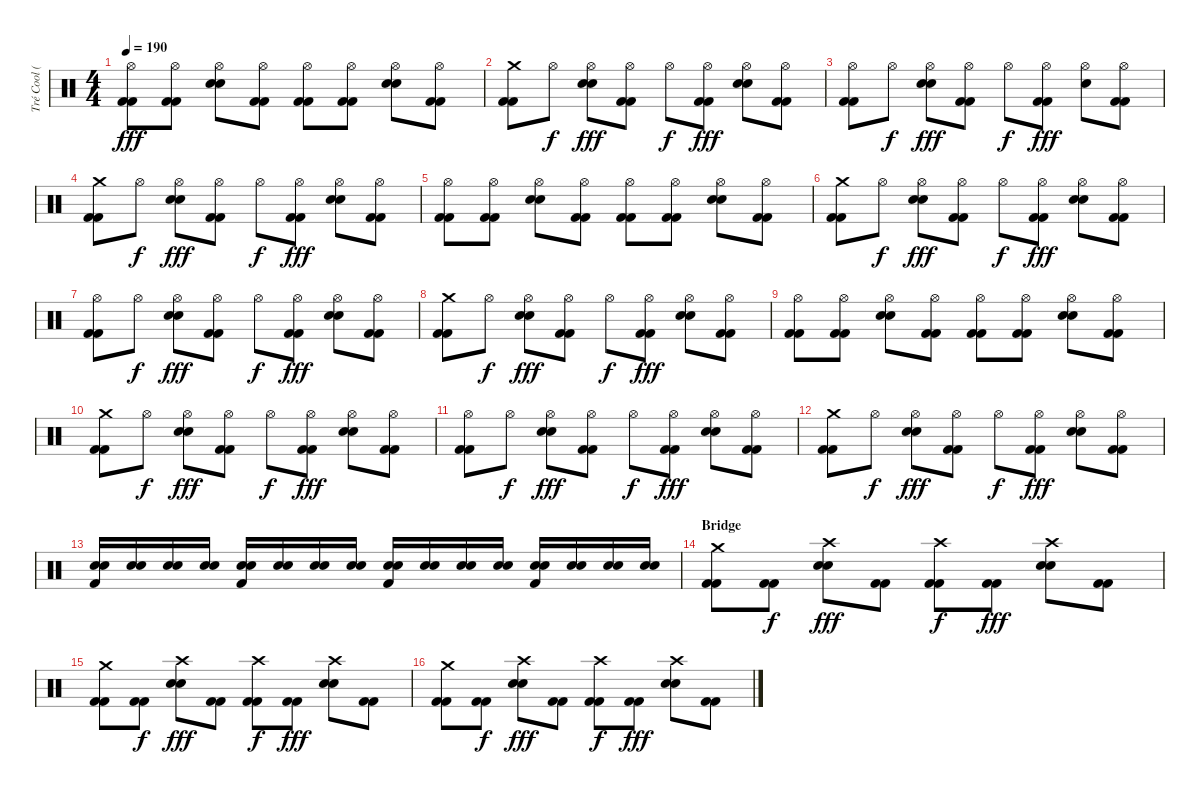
\track ("Tré Cool (Drums)" "Tré Cool (") {instrument percussion}
\staff {score}
\articulation defaults
\ts (4 4)
\tempo 190
\clef neutral
\ks c
("Kick (hit) 2" "Kick (hit) 2" "Hi-Hat (open)").8{dy fff} ("Kick (hit) 2" "Kick (hit) 2" "Hi-Hat (open)").8 ("Electric Snare (hit)" "Electric Snare (hit)" "Hi-Hat (open)").8 ("Kick (hit) 2" "Kick (hit) 2" "Hi-Hat (open)").8 ("Kick (hit) 2" "Kick (hit) 2" "Hi-Hat (open)").8 ("Kick (hit) 2" "Kick (hit) 2" "Hi-Hat (open)").8 ("Electric Snare (hit)" "Electric Snare (hit)" "Hi-Hat (open)").8 ("Kick (hit) 2" "Kick (hit) 2" "Hi-Hat (open)").8 |
("Kick (hit) 2" "Kick (hit) 2" "Crash medium (hit)").8 "Hi-Hat (open)".8{dy f} ("Electric Snare (hit)" "Electric Snare (hit)" "Hi-Hat (open)").8{dy fff} ("Kick (hit) 2" "Kick (hit) 2" "Hi-Hat (open)").8 "Hi-Hat (open)".8{dy f} ("Kick (hit) 2" "Kick (hit) 2" "Hi-Hat (open)").8{dy fff} ("Electric Snare (hit)" "Electric Snare (hit)" "Hi-Hat (open)").8 ("Kick (hit) 2" "Kick (hit) 2" "Hi-Hat (open)").8 |
("Kick (hit) 2" "Kick (hit) 2" "Hi-Hat (open)").8 "Hi-Hat (open)".8{dy f} ("Electric Snare (hit)" "Electric Snare (hit)" "Hi-Hat (open)").8{dy fff} ("Kick (hit) 2" "Kick (hit) 2" "Hi-Hat (open)").8 "Hi-Hat (open)".8{dy f} ("Kick (hit) 2" "Kick (hit) 2" "Hi-Hat (open)").8{dy fff} ("Electric Snare (hit)" "Hi-Hat (open)").8 ("Kick (hit) 2" "Kick (hit) 2" "Hi-Hat (open)").8 |
("Kick (hit) 2" "Kick (hit) 2" "Crash medium (hit)").8 "Hi-Hat (open)".8{dy f} ("Electric Snare (hit)" "Electric Snare (hit)" "Hi-Hat (open)").8{dy fff} ("Kick (hit) 2" "Kick (hit) 2" "Hi-Hat (open)").8 "Hi-Hat (open)".8{dy f} ("Kick (hit) 2" "Kick (hit) 2" "Hi-Hat (open)").8{dy fff} ("Electric Snare (hit)" "Electric Snare (hit)" "Hi-Hat (open)").8 ("Kick (hit) 2" "Kick (hit) 2" "Hi-Hat (open)").8 |
("Kick (hit) 2" "Kick (hit) 2" "Hi-Hat (open)").8 ("Kick (hit) 2" "Kick (hit) 2" "Hi-Hat (open)").8 ("Electric Snare (hit)" "Electric Snare (hit)" "Hi-Hat (open)").8 ("Kick (hit) 2" "Kick (hit) 2" "Hi-Hat (open)").8 ("Kick (hit) 2" "Kick (hit) 2" "Hi-Hat (open)").8 ("Kick (hit) 2" "Kick (hit) 2" "Hi-Hat (open)").8 ("Electric Snare (hit)" "Electric Snare (hit)" "Hi-Hat (open)").8 ("Kick (hit) 2" "Kick (hit) 2" "Hi-Hat (open)").8 |
("Kick (hit) 2" "Kick (hit) 2" "Crash medium (hit)").8 "Hi-Hat (open)".8{dy f} ("Electric Snare (hit)" "Electric Snare (hit)" "Hi-Hat (open)").8{dy fff} ("Kick (hit) 2" "Kick (hit) 2" "Hi-Hat (open)").8 "Hi-Hat (open)".8{dy f} ("Kick (hit) 2" "Kick (hit) 2" "Hi-Hat (open)").8{dy fff} ("Electric Snare (hit)" "Electric Snare (hit)" "Hi-Hat (open)").8 ("Kick (hit) 2" "Kick (hit) 2" "Hi-Hat (open)").8 |
("Kick (hit) 2" "Kick (hit) 2" "Hi-Hat (open)").8 "Hi-Hat (open)".8{dy f} ("Electric Snare (hit)" "Electric Snare (hit)" "Hi-Hat (open)").8{dy fff} ("Kick (hit) 2" "Kick (hit) 2" "Hi-Hat (open)").8 "Hi-Hat (open)".8{dy f} ("Kick (hit) 2" "Kick (hit) 2" "Hi-Hat (open)").8{dy fff} ("Electric Snare (hit)" "Electric Snare (hit)" "Hi-Hat (open)").8 ("Kick (hit) 2" "Kick (hit) 2" "Hi-Hat (open)").8 |
("Kick (hit) 2" "Kick (hit) 2" "Crash medium (hit)").8 "Hi-Hat (open)".8{dy f} ("Electric Snare (hit)" "Electric Snare (hit)" "Hi-Hat (open)").8{dy fff} ("Kick (hit) 2" "Kick (hit) 2" "Hi-Hat (open)").8 "Hi-Hat (open)".8{dy f} ("Kick (hit) 2" "Kick (hit) 2" "Hi-Hat (open)").8{dy fff} ("Electric Snare (hit)" "Electric Snare (hit)" "Hi-Hat (open)").8 ("Kick (hit) 2" "Kick (hit) 2" "Hi-Hat (open)").8 |
("Kick (hit) 2" "Kick (hit) 2" "Hi-Hat (open)").8 ("Kick (hit) 2" "Kick (hit) 2" "Hi-Hat (open)").8 ("Electric Snare (hit)" "Electric Snare (hit)" "Hi-Hat (open)").8 ("Kick (hit) 2" "Kick (hit) 2" "Hi-Hat (open)").8 ("Kick (hit) 2" "Kick (hit) 2" "Hi-Hat (open)").8 ("Kick (hit) 2" "Kick (hit) 2" "Hi-Hat (open)").8 ("Electric Snare (hit)" "Electric Snare (hit)" "Hi-Hat (open)").8 ("Kick (hit) 2" "Kick (hit) 2" "Hi-Hat (open)").8 |
("Kick (hit) 2" "Kick (hit) 2" "Crash medium (hit)").8 "Hi-Hat (open)".8{dy f} ("Electric Snare (hit)" "Electric Snare (hit)" "Hi-Hat (open)").8{dy fff} ("Kick (hit) 2" "Kick (hit) 2" "Hi-Hat (open)").8 "Hi-Hat (open)".8{dy f} ("Kick (hit) 2" "Kick (hit) 2" "Hi-Hat (open)").8{dy fff} ("Electric Snare (hit)" "Electric Snare (hit)" "Hi-Hat (open)").8 ("Kick (hit) 2" "Kick (hit) 2" "Hi-Hat (open)").8 |
("Kick (hit) 2" "Kick (hit) 2" "Hi-Hat (open)").8 "Hi-Hat (open)".8{dy f} ("Electric Snare (hit)" "Electric Snare (hit)" "Hi-Hat (open)").8{dy fff} ("Kick (hit) 2" "Kick (hit) 2" "Hi-Hat (open)").8 "Hi-Hat (open)".8{dy f} ("Kick (hit) 2" "Kick (hit) 2" "Hi-Hat (open)").8{dy fff} ("Electric Snare (hit)" "Electric Snare (hit)" "Hi-Hat (open)").8 ("Kick (hit) 2" "Kick (hit) 2" "Hi-Hat (open)").8 |
("Kick (hit) 2" "Kick (hit) 2" "Crash medium (hit)").8 "Hi-Hat (open)".8{dy f} ("Electric Snare (hit)" "Electric Snare (hit)" "Hi-Hat (open)").8{dy fff} ("Kick (hit) 2" "Kick (hit) 2" "Hi-Hat (open)").8 "Hi-Hat (open)".8{dy f} ("Kick (hit) 2" "Kick (hit) 2" "Hi-Hat (open)").8{dy fff} ("Electric Snare (hit)" "Electric Snare (hit)" "Hi-Hat (open)").8 ("Kick (hit) 2" "Kick (hit) 2" "Hi-Hat (open)").8 |
("Electric Snare (hit)" "Electric Snare (hit)" "Kick (hit) 2").16 ("Electric Snare (hit)" "Electric Snare (hit)").16 ("Electric Snare (hit)" "Electric Snare (hit)").16 ("Electric Snare (hit)" "Electric Snare (hit)").16 ("Electric Snare (hit)" "Electric Snare (hit)" "Kick (hit) 2").16 ("Electric Snare (hit)" "Electric Snare (hit)").16 ("Electric Snare (hit)" "Electric Snare (hit)").16 ("Electric Snare (hit)" "Electric Snare (hit)").16 ("Electric Snare (hit)" "Electric Snare (hit)" "Kick (hit) 2").16 ("Electric Snare (hit)" "Electric Snare (hit)").16 ("Electric Snare (hit)" "Electric Snare (hit)").16 ("Electric Snare (hit)" "Electric Snare (hit)").16 ("Electric Snare (hit)" "Electric Snare (hit)" "Kick (hit) 2").16 ("Electric Snare (hit)" "Electric Snare (hit)").16 ("Electric Snare (hit)" "Electric Snare (hit)").16 ("Electric Snare (hit)" "Electric Snare (hit)").16 |
\section ("" "Bridge")
("Kick (hit) 2" "Kick (hit) 2" "Crash medium (hit)").8 ("Kick (hit) 2" "Kick (hit) 2").8{dy f} ("Electric Snare (hit)" "Electric Snare (hit)" "Crash high (hit)").8{dy fff} ("Kick (hit) 2" "Kick (hit) 2").8 ("Kick (hit) 2" "Kick (hit) 2" "Crash high (hit)").8{dy f} ("Kick (hit) 2" "Kick (hit) 2").8{dy fff} ("Electric Snare (hit)" "Electric Snare (hit)" "Crash high (hit)").8 ("Kick (hit) 2" "Kick (hit) 2").8 |
("Kick (hit) 2" "Kick (hit) 2" "Crash medium (hit)").8 ("Kick (hit) 2" "Kick (hit) 2").8{dy f} ("Electric Snare (hit)" "Electric Snare (hit)" "Crash high (hit)").8{dy fff} ("Kick (hit) 2" "Kick (hit) 2").8 ("Kick (hit) 2" "Kick (hit) 2" "Crash high (hit)").8{dy f} ("Kick (hit) 2" "Kick (hit) 2").8{dy fff} ("Electric Snare (hit)" "Electric Snare (hit)" "Crash high (hit)").8 ("Kick (hit) 2" "Kick (hit) 2").8 |
("Kick (hit) 2" "Kick (hit) 2" "Crash medium (hit)").8 ("Kick (hit) 2" "Kick (hit) 2").8{dy f} ("Electric Snare (hit)" "Electric Snare (hit)" "Crash high (hit)").8{dy fff} ("Kick (hit) 2" "Kick (hit) 2").8 ("Kick (hit) 2" "Kick (hit) 2" "Crash high (hit)").8{dy f} ("Kick (hit) 2" "Kick (hit) 2").8{dy fff} ("Electric Snare (hit)" "Electric Snare (hit)" "Crash high (hit)").8 ("Kick (hit) 2" "Kick (hit) 2").8
